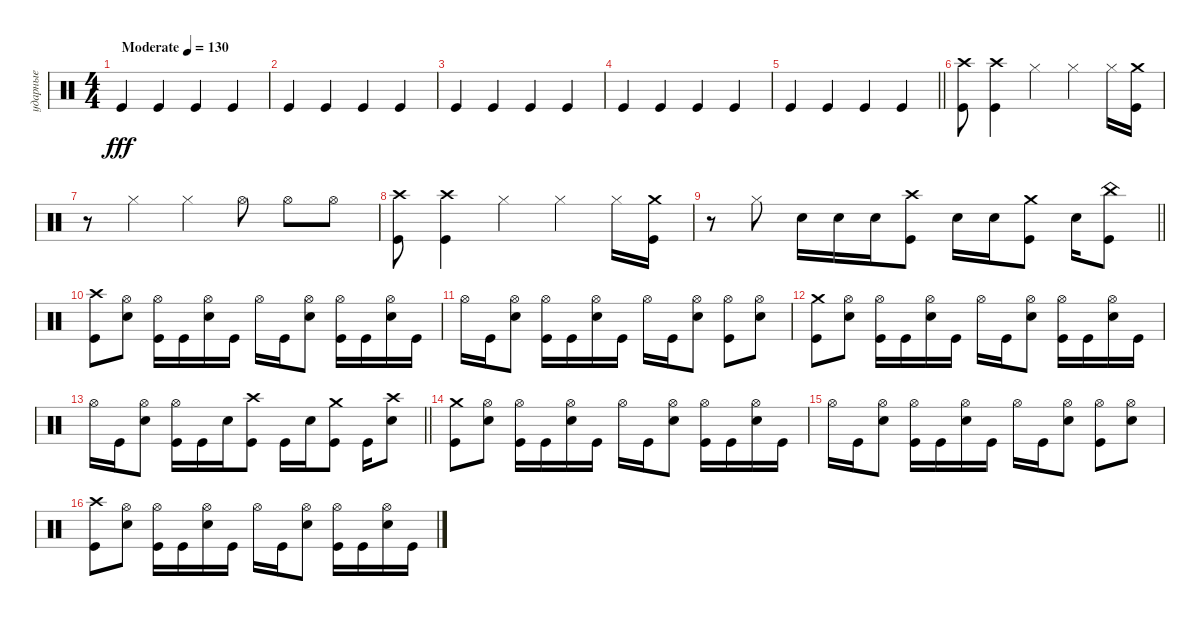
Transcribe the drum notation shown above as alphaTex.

\track ("ударные" "ударные") {instrument percussion}
\staff {score}
\articulation defaults
\ts (4 4)
\tempo (130 "Moderate")
\clef neutral
\ks c "Kick (hit)".4{dy fff} "Kick (hit)".4 "Kick (hit)".4 "Kick (hit)".4
|
"Kick (hit)".4 "Kick (hit)".4 "Kick (hit)".4 "Kick (hit)".4 |
"Kick (hit)".4 "Kick (hit)".4 "Kick (hit)".4 "Kick (hit)".4 |
"Kick (hit)".4 "Kick (hit)".4 "Kick (hit)".4 "Kick (hit)".4 |
\barLineRight lightlight "Kick (hit)".4 "Kick (hit)".4 "Kick (hit)".4 "Kick (hit)".4
|
("Crash high (hit)" "Kick (hit)").8 ("Crash high (hit)" "Kick (hit)").4 "Hi-Hat (closed)".4 "Hi-Hat (closed)".4 "Hi-Hat (closed)".16 ("Crash medium (hit)" "Kick (hit)").16 |
r.8 "Hi-Hat (closed)".4 "Hi-Hat (closed)".4 "Hi-Hat (open)".8 "Hi-Hat (open)".8 "Hi-Hat (open)".8 |
("Crash high (hit)" "Kick (hit)").8 ("Crash high (hit)" "Kick (hit)").4 "Hi-Hat (closed)".4 "Hi-Hat (closed)".4 "Hi-Hat (closed)".16 ("Crash medium (hit)" "Kick (hit)").16 |
\barLineRight lightlight
r.8 "Hi-Hat (closed)".8 "Snare (hit) 2".16 "Snare (hit) 2".16 "Snare (hit) 2".16 ("Crash high (hit)" "Kick (hit)").8 "Snare (hit) 2".16 "Snare (hit) 2".16 ("Crash medium (hit)" "Kick (hit)").8 "Snare (hit) 2".16 ("China (hit)" "Kick (hit)").8 |
("Crash high (hit)" "Kick (hit)").8 ("Hi-Hat (open)" "Snare (hit) 2").8 ("Hi-Hat (open)" "Kick (hit)").16 "Kick (hit)".16 ("Hi-Hat (open)" "Snare (hit) 2").16 "Kick (hit)".16 "Hi-Hat (open)".16 "Kick (hit)".16 ("Hi-Hat (open)" "Snare (hit) 2").8 ("Hi-Hat (open)" "Kick (hit)").16 "Kick (hit)".16 ("Hi-Hat (open)" "Snare (hit) 2").16 "Kick (hit)".16 |
"Hi-Hat (open)".16 "Kick (hit)".16 ("Hi-Hat (open)" "Snare (hit) 2").8 ("Hi-Hat (open)" "Kick (hit)").16 "Kick (hit)".16 ("Hi-Hat (open)" "Snare (hit) 2").16 "Kick (hit)".16 "Hi-Hat (open)".16 "Kick (hit)".16 ("Hi-Hat (open)" "Snare (hit) 2").8 ("Hi-Hat (open)" "Kick (hit)").8 ("Hi-Hat (open)" "Snare (hit) 2").8 |
("Crash medium (hit)" "Kick (hit)").8 ("Hi-Hat (open)" "Snare (hit) 2").8 ("Hi-Hat (open)" "Kick (hit)").16 "Kick (hit)".16 ("Hi-Hat (open)" "Snare (hit) 2").16 "Kick (hit)".16 "Hi-Hat (open)".16 "Kick (hit)".16 ("Hi-Hat (open)" "Snare (hit) 2").8 ("Hi-Hat (open)" "Kick (hit)").16 "Kick (hit)".16 ("Hi-Hat (open)" "Snare (hit) 2").16 "Kick (hit)".16 |
\barLineRight lightlight "Hi-Hat (open)".16 "Kick (hit)".16
("Hi-Hat (open)" "Snare (hit) 2").8 ("Hi-Hat (open)" "Kick (hit)").16 "Kick (hit)".16 "Snare (hit) 2".16 ("Crash high (hit)" "Kick (hit)").8 "Kick (hit)".16 "Snare (hit) 2".16 ("Crash medium (hit)" "Kick (hit)").8 "Kick (hit)".16 ("Crash high (hit)" "Snare (hit) 2").8 |
("Crash medium (hit)" "Kick (hit)").8 ("Hi-Hat (open)" "Snare (hit) 2").8 ("Hi-Hat (open)" "Kick (hit)").16 "Kick (hit)".16 ("Hi-Hat (open)" "Snare (hit) 2").16 "Kick (hit)".16 "Hi-Hat (open)".16 "Kick (hit)".16 ("Hi-Hat (open)" "Snare (hit) 2").8 ("Hi-Hat (open)" "Kick (hit)").16 "Kick (hit)".16 ("Hi-Hat (open)" "Snare (hit) 2").16 "Kick (hit)".16 |
"Hi-Hat (open)".16 "Kick (hit)".16 ("Hi-Hat (open)" "Snare (hit) 2").8 ("Hi-Hat (open)" "Kick (hit)").16 "Kick (hit)".16 ("Hi-Hat (open)" "Snare (hit) 2").16 "Kick (hit)".16 "Hi-Hat (open)".16 "Kick (hit)".16 ("Hi-Hat (open)" "Snare (hit) 2").8 ("Hi-Hat (open)" "Kick (hit)").8 ("Hi-Hat (open)" "Snare (hit) 2").8 |
("Crash high (hit)" "Kick (hit)").8 ("Hi-Hat (open)" "Snare (hit) 2").8 ("Hi-Hat (open)" "Kick (hit)").16 "Kick (hit)".16 ("Hi-Hat (open)" "Snare (hit) 2").16 "Kick (hit)".16 "Hi-Hat (open)".16 "Kick (hit)".16 ("Hi-Hat (open)" "Snare (hit) 2").8 ("Hi-Hat (open)" "Kick (hit)").16 "Kick (hit)".16 ("Hi-Hat (open)" "Snare (hit) 2").16 "Kick (hit)".16
